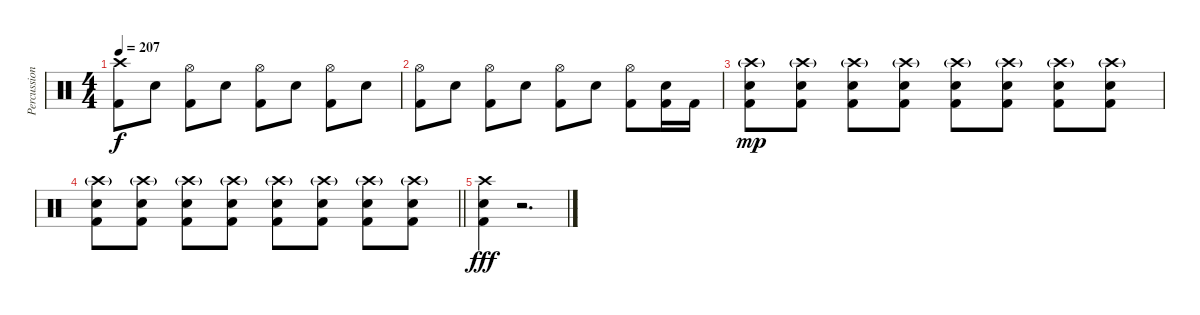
\track ("Percussion" "Percussion") {instrument percussion}
\staff {score}
\articulation defaults
\ts (4 4)
\tempo 207
\clef neutral
\ks c
("Crash high (hit)" "Kick (hit) 2").8{dy f} "Electric Snare (hit)".8 ("Hi-Hat (open)" "Kick (hit) 2").8 "Electric Snare (hit)".8 ("Hi-Hat (open)" "Kick (hit) 2").8 "Electric Snare (hit)".8 ("Hi-Hat (open)" "Kick (hit) 2").8 "Electric Snare (hit)".8 |
("Hi-Hat (open)" "Kick (hit) 2").8 "Electric Snare (hit)".8 ("Hi-Hat (open)" "Kick (hit) 2").8 "Electric Snare (hit)".8 ("Hi-Hat (open)" "Kick (hit) 2").8 "Electric Snare (hit)".8 ("Hi-Hat (open)" "Kick (hit) 2").8 ("Electric Snare (hit)" "Kick (hit) 2").16 "Kick (hit) 2".16 |
("Crash high (hit)"{g} "Electric Snare (hit)" "Kick (hit) 2").8{dy mp} ("Crash high (hit)"{g} "Electric Snare (hit)" "Kick (hit) 2").8 ("Crash high (hit)"{g} "Electric Snare (hit)" "Kick (hit) 2").8 ("Crash high (hit)"{g} "Electric Snare (hit)" "Kick (hit) 2").8 ("Crash high (hit)"{g} "Electric Snare (hit)" "Kick (hit) 2").8 ("Crash high (hit)"{g} "Electric Snare (hit)" "Kick (hit) 2").8 ("Crash high (hit)"{g} "Electric Snare (hit)" "Kick (hit) 2").8 ("Crash high (hit)"{g} "Electric Snare (hit)" "Kick (hit) 2").8 |
\barLineRight lightlight
("Crash high (hit)"{g} "Electric Snare (hit)" "Kick (hit) 2").8 ("Crash high (hit)"{g} "Electric Snare (hit)" "Kick (hit) 2").8 ("Crash high (hit)"{g} "Electric Snare (hit)" "Kick (hit) 2").8 ("Crash high (hit)"{g} "Electric Snare (hit)" "Kick (hit) 2").8 ("Crash high (hit)"{g} "Electric Snare (hit)" "Kick (hit) 2").8 ("Crash high (hit)"{g} "Electric Snare (hit)" "Kick (hit) 2").8 ("Crash high (hit)"{g} "Electric Snare (hit)" "Kick (hit) 2").8 ("Crash high (hit)"{g} "Electric Snare (hit)" "Kick (hit) 2").8 |
("Crash high (hit)" "Electric Snare (hit)" "Kick (hit) 2").4{dy fff} r.2{d}
